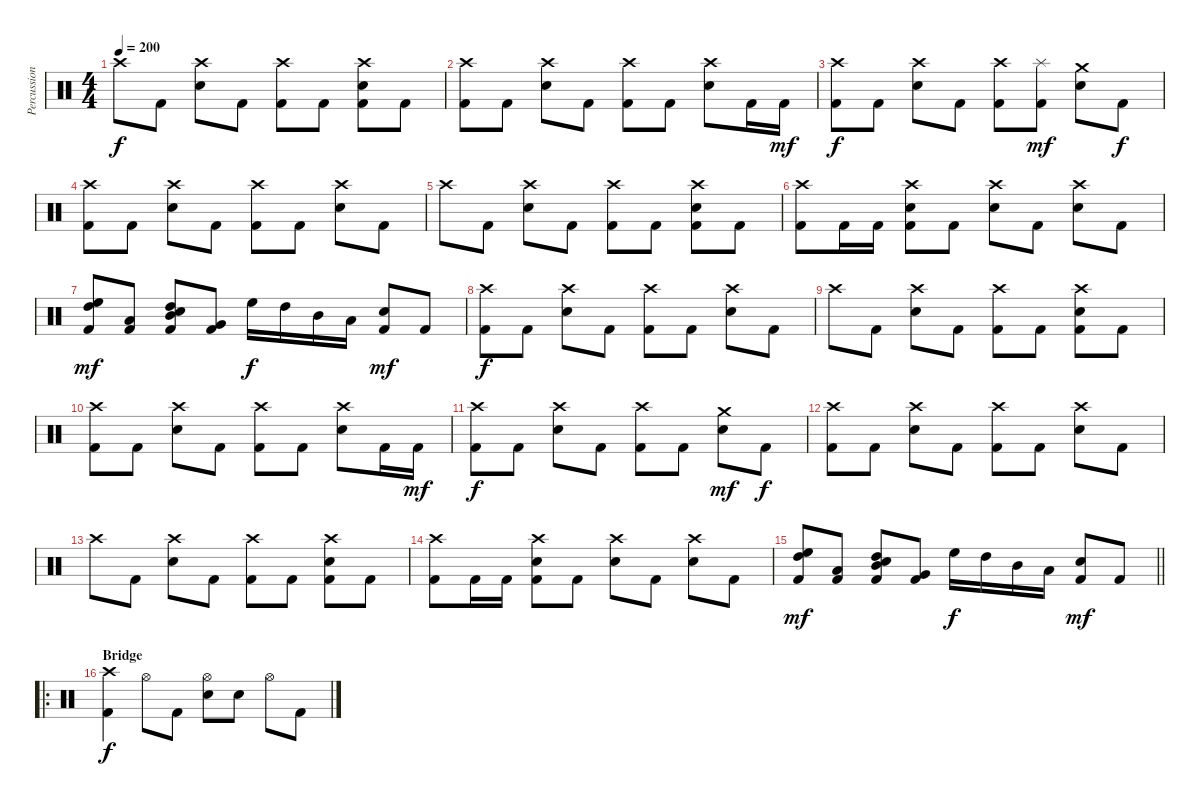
\track ("Percussion" "Percussion") {instrument percussion}
\staff {score}
\articulation defaults
\ts (4 4)
\tempo 200
\clef neutral
\ks c "Crash high (hit)".8{dy f} "Kick (hit) 2".8
("Crash high (hit)" "Snare (hit) 2").8 "Kick (hit) 2".8 ("Crash high (hit)" "Kick (hit) 2").8 "Kick (hit) 2".8 ("Crash high (hit)" "Snare (hit) 2" "Kick (hit) 2").8 "Kick (hit) 2".8 |
("Crash high (hit)" "Kick (hit) 2").8 "Kick (hit) 2".8 ("Crash high (hit)" "Snare (hit) 2").8 "Kick (hit) 2".8 ("Crash high (hit)" "Kick (hit) 2").8 "Kick (hit) 2".8 ("Crash high (hit)" "Snare (hit) 2").8 "Kick (hit) 2".16 "Kick (hit) 2".16{dy mf} |
("Crash high (hit)" "Kick (hit) 2").8{dy f} "Kick (hit) 2".8 ("Crash high (hit)" "Snare (hit) 2").8 "Kick (hit) 2".8 ("Crash high (hit)" "Kick (hit) 2").8 ("Splash (hit)" "Kick (hit) 2").8{dy mf} ("Crash medium (hit)" "Snare (hit) 2").8 "Kick (hit) 2".8{dy f} |
("Crash high (hit)" "Kick (hit) 2").8 "Kick (hit) 2".8 ("Crash high (hit)" "Snare (hit) 2").8 "Kick (hit) 2".8 ("Crash high (hit)" "Kick (hit) 2").8 "Kick (hit) 2".8 ("Crash high (hit)" "Snare (hit) 2").8 "Kick (hit) 2".8 |
"Crash high (hit)".8 "Kick (hit) 2".8 ("Crash high (hit)" "Snare (hit) 2").8 "Kick (hit) 2".8 ("Crash high (hit)" "Kick (hit) 2").8 "Kick (hit) 2".8 ("Crash high (hit)" "Snare (hit) 2" "Kick (hit) 2").8 "Kick (hit) 2".8 |
("Crash high (hit)" "Kick (hit) 2").8 "Kick (hit) 2".16 "Kick (hit) 2".16 ("Crash high (hit)" "Snare (hit) 2" "Kick (hit) 2").8 "Kick (hit) 2".8 ("Crash high (hit)" "Snare (hit) 2").8 "Kick (hit) 2".8 ("Crash high (hit)" "Snare (hit) 2").8 "Kick (hit) 2".8 |
("High Floor Tom (hit)" "High Tom (hit)" "Kick (hit) 2").8{dy mf} ("Low Tom (hit)" "Kick (hit) 2").8 ("Snare (hit) 2" "High Tom (hit)" "Mid Tom (hit)" "Kick (hit) 2").8 ("Very Low Tom (hit)" "Kick (hit) 2").8 "High Floor Tom (hit)".16{dy f} "High Tom (hit)".16 "Mid Tom (hit)".16 "Low Tom (hit)".16 ("Snare (hit) 2" "Kick (hit) 2").8{dy mf} "Kick (hit) 2".8 |
("Crash high (hit)" "Kick (hit) 2").8{dy f} "Kick (hit) 2".8 ("Crash high (hit)" "Snare (hit) 2").8 "Kick (hit) 2".8 ("Crash high (hit)" "Kick (hit) 2").8 "Kick (hit) 2".8 ("Crash high (hit)" "Snare (hit) 2").8 "Kick (hit) 2".8 |
"Crash high (hit)".8 "Kick (hit) 2".8 ("Crash high (hit)" "Snare (hit) 2").8 "Kick (hit) 2".8 ("Crash high (hit)" "Kick (hit) 2").8 "Kick (hit) 2".8 ("Crash high (hit)" "Snare (hit) 2" "Kick (hit) 2").8 "Kick (hit) 2".8 |
("Crash high (hit)" "Kick (hit) 2").8 "Kick (hit) 2".8 ("Crash high (hit)" "Snare (hit) 2").8 "Kick (hit) 2".8 ("Crash high (hit)" "Kick (hit) 2").8 "Kick (hit) 2".8 ("Crash high (hit)" "Snare (hit) 2").8 "Kick (hit) 2".16 "Kick (hit) 2".16{dy mf} |
("Crash high (hit)" "Kick (hit) 2").8{dy f} "Kick (hit) 2".8 ("Crash high (hit)" "Snare (hit) 2").8 "Kick (hit) 2".8 ("Crash high (hit)" "Kick (hit) 2").8 "Kick (hit) 2".8 ("Crash medium (hit)" "Snare (hit) 2").8{dy mf} "Kick (hit) 2".8{dy f} |
("Crash high (hit)" "Kick (hit) 2").8 "Kick (hit) 2".8 ("Crash high (hit)" "Snare (hit) 2").8 "Kick (hit) 2".8 ("Crash high (hit)" "Kick (hit) 2").8 "Kick (hit) 2".8 ("Crash high (hit)" "Snare (hit) 2").8 "Kick (hit) 2".8 |
"Crash high (hit)".8 "Kick (hit) 2".8 ("Crash high (hit)" "Snare (hit) 2").8 "Kick (hit) 2".8 ("Crash high (hit)" "Kick (hit) 2").8 "Kick (hit) 2".8 ("Crash high (hit)" "Snare (hit) 2" "Kick (hit) 2").8 "Kick (hit) 2".8 |
("Crash high (hit)" "Kick (hit) 2").8 "Kick (hit) 2".16 "Kick (hit) 2".16 ("Crash high (hit)" "Snare (hit) 2" "Kick (hit) 2").8 "Kick (hit) 2".8 ("Crash high (hit)" "Snare (hit) 2").8 "Kick (hit) 2".8 ("Crash high (hit)" "Snare (hit) 2").8 "Kick (hit) 2".8 |
\barLineRight lightlight
("High Floor Tom (hit)" "High Tom (hit)" "Kick (hit) 2").8{dy mf} ("Low Tom (hit)" "Kick (hit) 2").8 ("Snare (hit) 2" "High Tom (hit)" "Mid Tom (hit)" "Kick (hit) 2").8 ("Very Low Tom (hit)" "Kick (hit) 2").8 "High Floor Tom (hit)".16{dy f} "High Tom (hit)".16 "Mid Tom (hit)".16 "Low Tom (hit)".16 ("Snare (hit) 2" "Kick (hit) 2").8{dy mf} "Kick (hit) 2".8 |
\ro
\section ("" "Bridge")
("Crash high (hit)" "Kick (hit) 2").4{dy f} "Hi-Hat (open)".8 "Kick (hit) 2".8 ("Hi-Hat (open)" "Snare (hit) 2").8 "Snare (hit) 2".8 "Hi-Hat (open)".8 "Kick (hit) 2".8
